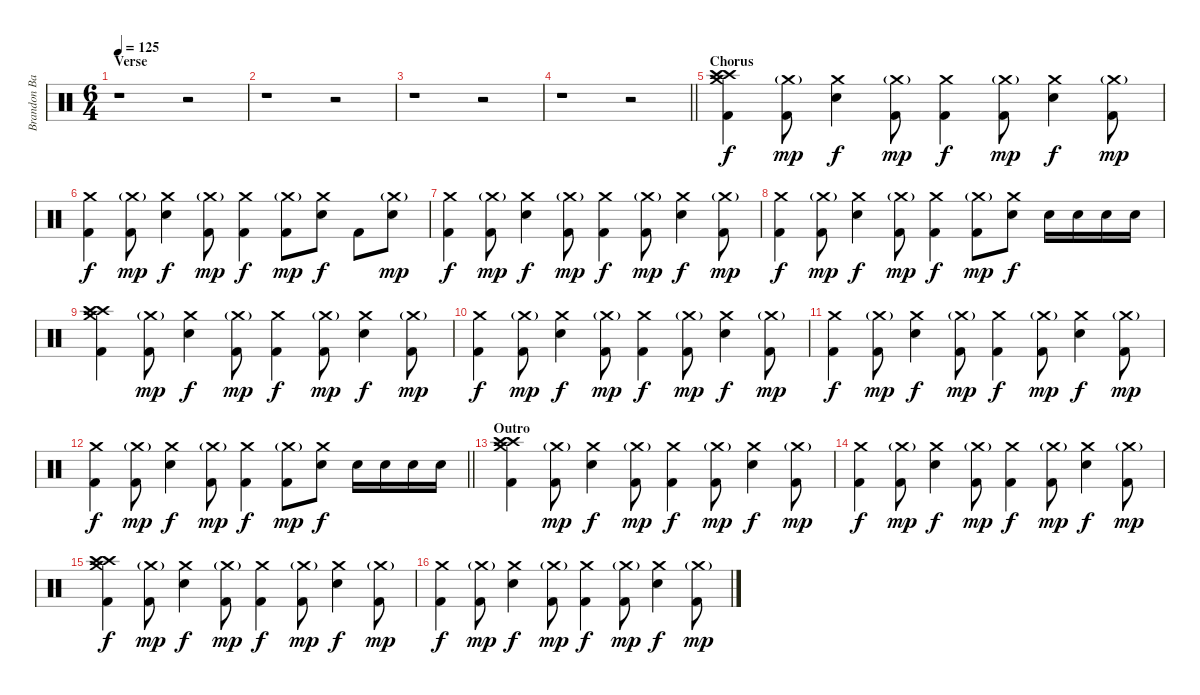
\track ("Brandon Barnes" "Brandon Ba") {instrument percussion}
\staff {score}
\articulation defaults
\ts (6 4)
\section ("" "Verse")
\tempo 125
\clef neutral
\ks c
r.1{dy f} r.2 |
r.1 r.2 |
r.1 r.2 |
\barLineRight lightlight
r.1 r.2 |
\section ("" "Chorus")
("Crash high (hit)" "Crash high (hit)" "Crash medium (hit)" "Kick (hit) 2").4 ("Crash medium (hit)"{g} "Kick (hit) 2").8{dy mp} ("Crash medium (hit)" "Electric Snare (hit)").4{dy f} ("Crash medium (hit)"{g} "Kick (hit) 2").8{dy mp} ("Crash medium (hit)" "Kick (hit) 2").4{dy f} ("Crash medium (hit)"{g} "Kick (hit) 2").8{dy mp} ("Crash medium (hit)" "Electric Snare (hit)").4{dy f} ("Crash medium (hit)"{g} "Kick (hit) 2").8{dy mp} |
("Crash medium (hit)" "Kick (hit) 2").4{dy f} ("Crash medium (hit)"{g} "Kick (hit) 2").8{dy mp} ("Crash medium (hit)" "Electric Snare (hit)").4{dy f} ("Crash medium (hit)"{g} "Kick (hit) 2").8{dy mp} ("Crash medium (hit)" "Kick (hit) 2").4{dy f} ("Crash medium (hit)"{g} "Kick (hit) 2").8{dy mp} ("Crash medium (hit)" "Electric Snare (hit)").8{dy f} "Kick (hit) 2".8 ("Crash medium (hit)"{g} "Electric Snare (hit)").8{dy mp} |
("Crash medium (hit)" "Kick (hit) 2").4{dy f} ("Crash medium (hit)"{g} "Kick (hit) 2").8{dy mp} ("Crash medium (hit)" "Electric Snare (hit)").4{dy f} ("Crash medium (hit)"{g} "Kick (hit) 2").8{dy mp} ("Crash medium (hit)" "Kick (hit) 2").4{dy f} ("Crash medium (hit)"{g} "Kick (hit) 2").8{dy mp} ("Crash medium (hit)" "Electric Snare (hit)").4{dy f} ("Crash medium (hit)"{g} "Kick (hit) 2").8{dy mp} |
("Crash medium (hit)" "Kick (hit) 2").4{dy f} ("Crash medium (hit)"{g} "Kick (hit) 2").8{dy mp} ("Crash medium (hit)" "Electric Snare (hit)").4{dy f} ("Crash medium (hit)"{g} "Kick (hit) 2").8{dy mp} ("Crash medium (hit)" "Kick (hit) 2").4{dy f} ("Crash medium (hit)"{g} "Kick (hit) 2").8{dy mp} ("Crash medium (hit)" "Electric Snare (hit)").8{dy f} "Electric Snare (hit)".16 "Electric Snare (hit)".16 "Electric Snare (hit)".16 "Electric Snare (hit)".16 |
("Crash high (hit)" "Crash high (hit)" "Crash medium (hit)" "Kick (hit) 2").4 ("Crash medium (hit)"{g} "Kick (hit) 2").8{dy mp} ("Crash medium (hit)" "Electric Snare (hit)").4{dy f} ("Crash medium (hit)"{g} "Kick (hit) 2").8{dy mp} ("Crash medium (hit)" "Kick (hit) 2").4{dy f} ("Crash medium (hit)"{g} "Kick (hit) 2").8{dy mp} ("Crash medium (hit)" "Electric Snare (hit)").4{dy f} ("Crash medium (hit)"{g} "Kick (hit) 2").8{dy mp} |
("Crash medium (hit)" "Kick (hit) 2").4{dy f} ("Crash medium (hit)"{g} "Kick (hit) 2").8{dy mp} ("Crash medium (hit)" "Electric Snare (hit)").4{dy f} ("Crash medium (hit)"{g} "Kick (hit) 2").8{dy mp} ("Crash medium (hit)" "Kick (hit) 2").4{dy f} ("Crash medium (hit)"{g} "Kick (hit) 2").8{dy mp} ("Crash medium (hit)" "Electric Snare (hit)").4{dy f} ("Crash medium (hit)"{g} "Kick (hit) 2").8{dy mp} |
("Crash medium (hit)" "Kick (hit) 2").4{dy f} ("Crash medium (hit)"{g} "Kick (hit) 2").8{dy mp} ("Crash medium (hit)" "Electric Snare (hit)").4{dy f} ("Crash medium (hit)"{g} "Kick (hit) 2").8{dy mp} ("Crash medium (hit)" "Kick (hit) 2").4{dy f} ("Crash medium (hit)"{g} "Kick (hit) 2").8{dy mp} ("Crash medium (hit)" "Electric Snare (hit)").4{dy f} ("Crash medium (hit)"{g} "Kick (hit) 2").8{dy mp} |
\barLineRight lightlight
("Crash medium (hit)" "Kick (hit) 2").4{dy f} ("Crash medium (hit)"{g} "Kick (hit) 2").8{dy mp} ("Crash medium (hit)" "Electric Snare (hit)").4{dy f} ("Crash medium (hit)"{g} "Kick (hit) 2").8{dy mp} ("Crash medium (hit)" "Kick (hit) 2").4{dy f} ("Crash medium (hit)"{g} "Kick (hit) 2").8{dy mp} ("Crash medium (hit)" "Electric Snare (hit)").8{dy f} "Electric Snare (hit)".16 "Electric Snare (hit)".16 "Electric Snare (hit)".16 "Electric Snare (hit)".16 |
\section ("" "Outro")
("Crash high (hit)" "Crash high (hit)" "Crash medium (hit)" "Kick (hit) 2").4 ("Crash medium (hit)"{g} "Kick (hit) 2").8{dy mp} ("Crash medium (hit)" "Electric Snare (hit)").4{dy f} ("Crash medium (hit)"{g} "Kick (hit) 2").8{dy mp} ("Crash medium (hit)" "Kick (hit) 2").4{dy f} ("Crash medium (hit)"{g} "Kick (hit) 2").8{dy mp} ("Crash medium (hit)" "Electric Snare (hit)").4{dy f} ("Crash medium (hit)"{g} "Kick (hit) 2").8{dy mp} |
("Crash medium (hit)" "Kick (hit) 2").4{dy f} ("Crash medium (hit)"{g} "Kick (hit) 2").8{dy mp} ("Crash medium (hit)" "Electric Snare (hit)").4{dy f} ("Crash medium (hit)"{g} "Kick (hit) 2").8{dy mp} ("Crash medium (hit)" "Kick (hit) 2").4{dy f} ("Crash medium (hit)"{g} "Kick (hit) 2").8{dy mp} ("Crash medium (hit)" "Electric Snare (hit)").4{dy f} ("Crash medium (hit)"{g} "Kick (hit) 2").8{dy mp} |
("Crash high (hit)" "Crash high (hit)" "Crash medium (hit)" "Kick (hit) 2").4{dy f} ("Crash medium (hit)"{g} "Kick (hit) 2").8{dy mp} ("Crash medium (hit)" "Electric Snare (hit)").4{dy f} ("Crash medium (hit)"{g} "Kick (hit) 2").8{dy mp} ("Crash medium (hit)" "Kick (hit) 2").4{dy f} ("Crash medium (hit)"{g} "Kick (hit) 2").8{dy mp} ("Crash medium (hit)" "Electric Snare (hit)").4{dy f} ("Crash medium (hit)"{g} "Kick (hit) 2").8{dy mp} |
("Crash medium (hit)" "Kick (hit) 2").4{dy f} ("Crash medium (hit)"{g} "Kick (hit) 2").8{dy mp} ("Crash medium (hit)" "Electric Snare (hit)").4{dy f} ("Crash medium (hit)"{g} "Kick (hit) 2").8{dy mp} ("Crash medium (hit)" "Kick (hit) 2").4{dy f} ("Crash medium (hit)"{g} "Kick (hit) 2").8{dy mp} ("Crash medium (hit)" "Electric Snare (hit)").4{dy f} ("Crash medium (hit)"{g} "Kick (hit) 2").8{dy mp}
